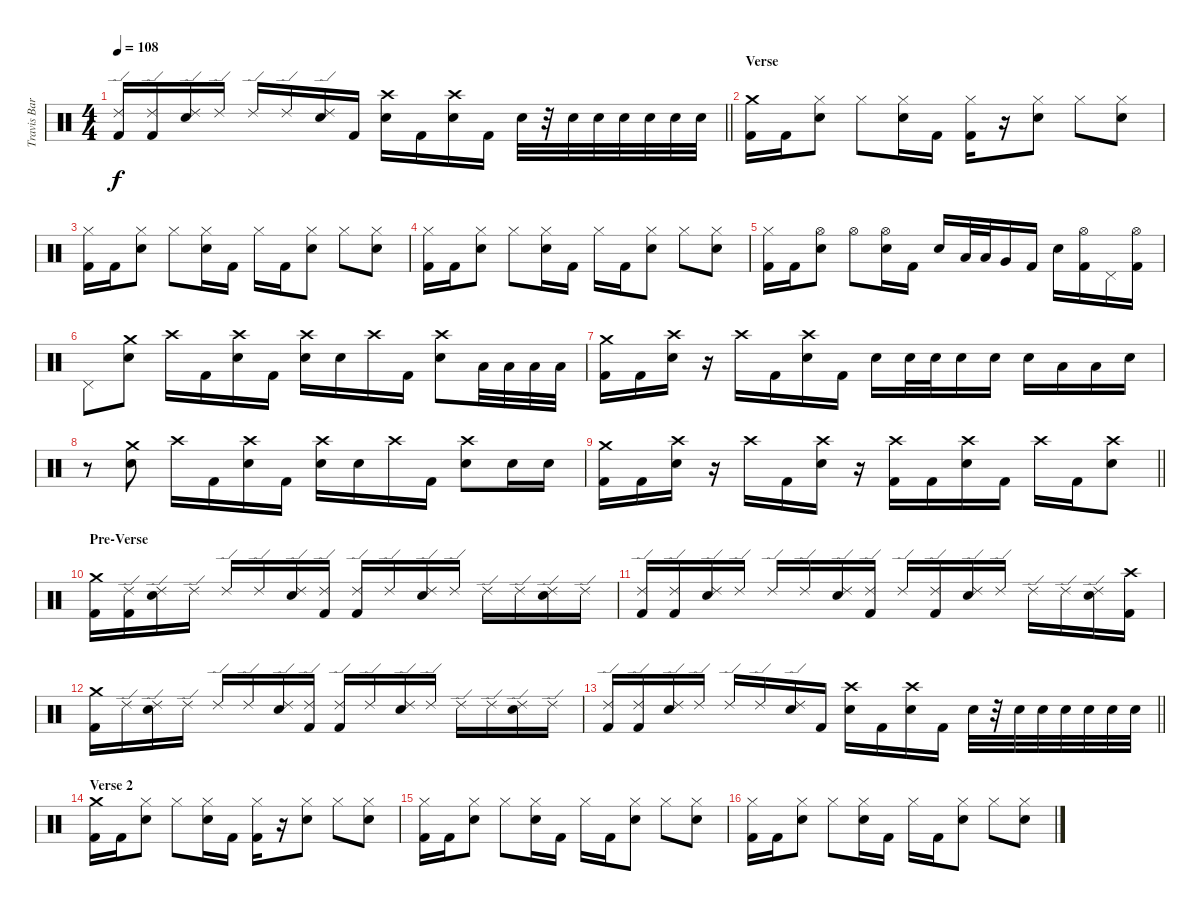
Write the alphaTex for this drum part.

\track ("Travis Barker" "Travis Bar") {instrument percussion}
\staff {score}
\articulation defaults
\ts (4 4)
\tempo 108
\clef neutral
\barLineRight lightlight
\ks c
("Ride (edge) 2" "Kick (hit) 2").16{dy f} ("Ride (edge) 2" "Kick (hit) 2").16 ("Ride (edge) 2" "Electric Snare (hit)").16 "Ride (edge) 2".16 "Ride (edge) 2".16 "Ride (edge) 2".16 ("Ride (edge) 2" "Electric Snare (hit)").16 "Kick (hit) 2".16 ("Crash high (hit)" "Electric Snare (hit)").16 "Kick (hit) 2".16 ("Crash high (hit)" "Electric Snare (hit)").16 "Kick (hit) 2".16 "Electric Snare (hit)".32 r.32 "Electric Snare (hit)".32 "Electric Snare (hit)".32 "Electric Snare (hit)".32 "Electric Snare (hit)".32 "Electric Snare (hit)".32 "Electric Snare (hit)".32 |
\section ("" "Verse")
("Crash medium (hit)" "Kick (hit) 2").16 "Kick (hit) 2".16 ("Hi-Hat (closed)" "Electric Snare (hit)").8 "Hi-Hat (closed)".8 ("Hi-Hat (closed)" "Electric Snare (hit)").16 "Kick (hit) 2".16 ("Hi-Hat (closed)" "Kick (hit) 2").16 r.16 ("Hi-Hat (closed)" "Electric Snare (hit)").8 "Hi-Hat (closed)".8 ("Hi-Hat (closed)" "Electric Snare (hit)").8 |
("Hi-Hat (closed)" "Kick (hit) 2").16 "Kick (hit) 2".16 ("Hi-Hat (closed)" "Electric Snare (hit)").8 "Hi-Hat (closed)".8 ("Hi-Hat (closed)" "Electric Snare (hit)").16 "Kick (hit) 2".16 "Hi-Hat (closed)".16 "Kick (hit) 2".16 ("Hi-Hat (closed)" "Electric Snare (hit)").8 "Hi-Hat (closed)".8 ("Hi-Hat (closed)" "Electric Snare (hit)").8 |
("Hi-Hat (closed)" "Kick (hit) 2").16 "Kick (hit) 2".16 ("Hi-Hat (closed)" "Electric Snare (hit)").8 "Hi-Hat (closed)".8 ("Hi-Hat (closed)" "Electric Snare (hit)").16 "Kick (hit) 2".16 "Hi-Hat (closed)".16 "Kick (hit) 2".16 ("Hi-Hat (closed)" "Electric Snare (hit)").8 "Hi-Hat (closed)".8 ("Hi-Hat (closed)" "Electric Snare (hit)").8 |
("Hi-Hat (closed)" "Kick (hit) 2").16 "Kick (hit) 2".16 ("Hi-Hat (open)" "Electric Snare (hit)").8 "Hi-Hat (open)".8 ("Hi-Hat (open)" "Electric Snare (hit)").16 "Kick (hit) 2".16 "Electric Snare (hit)".16 "Low Tom (hit)".32 "Low Tom (hit)".32 "Very Low Tom (hit)".16 "Kick (hit) 2".16 "Electric Snare (hit)".16 ("Hi-Hat (open)" "Kick (hit) 2").16 "Pedal Hi-Hat (hit)".16 ("Hi-Hat (open)" "Kick (hit) 2").16 |
"Pedal Hi-Hat (hit)".8 ("Crash medium (hit)" "Electric Snare (hit)").8 "Crash high (hit)".16 "Kick (hit) 2".16 ("Crash high (hit)" "Electric Snare (hit)").16 "Kick (hit) 2".16 ("Crash high (hit)" "Electric Snare (hit)").16 "Electric Snare (hit)".16 "Crash high (hit)".16 "Kick (hit) 2".16 ("Crash high (hit)" "Electric Snare (hit)").8 "Low Tom (hit)".32 "Low Tom (hit)".32 "Low Tom (hit)".32 "Low Tom (hit)".32 |
("Crash medium (hit)" "Kick (hit) 2").16 "Kick (hit) 2".16 ("Crash high (hit)" "Electric Snare (hit)").16 r.16 "Crash high (hit)".16 "Kick (hit) 2".16 ("Crash high (hit)" "Electric Snare (hit)").16 "Kick (hit) 2".16 "Electric Snare (hit)".16 "Electric Snare (hit)".32 "Electric Snare (hit)".32 "Electric Snare (hit)".16 "Electric Snare (hit)".16 "Electric Snare (hit)".16 "Low Tom (hit)".16 "Low Tom (hit)".16 "Electric Snare (hit)".16 |
r.8 ("Crash medium (hit)" "Electric Snare (hit)").8 "Crash high (hit)".16 "Kick (hit) 2".16 ("Crash high (hit)" "Electric Snare (hit)").16 "Kick (hit) 2".16 ("Crash high (hit)" "Electric Snare (hit)").16 "Electric Snare (hit)".16 "Crash high (hit)".16 "Kick (hit) 2".16 ("Crash high (hit)" "Electric Snare (hit)").8 "Electric Snare (hit)".16 "Electric Snare (hit)".16 |
\barLineRight lightlight
("Crash medium (hit)" "Kick (hit) 2").16 "Kick (hit) 2".16 ("Crash high (hit)" "Electric Snare (hit)").16 r.16 "Crash high (hit)".16 "Kick (hit) 2".16 ("Crash high (hit)" "Electric Snare (hit)").16 r.16 ("Crash high (hit)" "Kick (hit) 2").16 "Kick (hit) 2".16 ("Crash high (hit)" "Electric Snare (hit)").16 "Kick (hit) 2".16 "Crash high (hit)".16 "Kick (hit) 2".16 ("Crash high (hit)" "Electric Snare (hit)").8 |
\section ("" "Pre-Verse")
("Crash medium (hit)" "Kick (hit) 2").16 ("Ride (edge) 2" "Kick (hit) 2").16 ("Ride (edge) 2" "Electric Snare (hit)").16 "Ride (edge) 2".16 "Ride (edge) 2".16 "Ride (edge) 2".16 ("Ride (edge) 2" "Electric Snare (hit)").16 ("Ride (edge) 2" "Kick (hit) 2").16 ("Ride (edge) 2" "Kick (hit) 2").16 "Ride (edge) 2".16 ("Ride (edge) 2" "Electric Snare (hit)").16 "Ride (edge) 2".16 "Ride (edge) 2".16 "Ride (edge) 2".16 ("Ride (edge) 2" "Electric Snare (hit)").16 "Ride (edge) 2".16 |
("Ride (edge) 2" "Kick (hit) 2").16 ("Ride (edge) 2" "Kick (hit) 2").16 ("Ride (edge) 2" "Electric Snare (hit)").16 "Ride (edge) 2".16 "Ride (edge) 2".16 "Ride (edge) 2".16 ("Ride (edge) 2" "Electric Snare (hit)").16 ("Ride (edge) 2" "Kick (hit) 2").16 "Ride (edge) 2".16 ("Ride (edge) 2" "Kick (hit) 2").16 ("Ride (edge) 2" "Electric Snare (hit)").16 "Ride (edge) 2".16 "Ride (edge) 2".16 "Ride (edge) 2".16 ("Ride (edge) 2" "Electric Snare (hit)").16 ("Crash high (hit)" "Kick (hit) 2").16 |
("Crash medium (hit)" "Kick (hit) 2").16 "Ride (edge) 2".16 ("Ride (edge) 2" "Electric Snare (hit)").16 "Ride (edge) 2".16 "Ride (edge) 2".16 "Ride (edge) 2".16 ("Ride (edge) 2" "Electric Snare (hit)").16 ("Ride (edge) 2" "Kick (hit) 2").16 ("Ride (edge) 2" "Kick (hit) 2").16 "Ride (edge) 2".16 ("Ride (edge) 2" "Electric Snare (hit)").16 "Ride (edge) 2".16 "Ride (edge) 2".16 "Ride (edge) 2".16 ("Ride (edge) 2" "Electric Snare (hit)").16 "Ride (edge) 2".16 |
\barLineRight lightlight
("Ride (edge) 2" "Kick (hit) 2").16 ("Ride (edge) 2" "Kick (hit) 2").16 ("Ride (edge) 2" "Electric Snare (hit)").16 "Ride (edge) 2".16 "Ride (edge) 2".16 "Ride (edge) 2".16 ("Ride (edge) 2" "Electric Snare (hit)").16 "Kick (hit) 2".16 ("Crash high (hit)" "Electric Snare (hit)").16 "Kick (hit) 2".16 ("Crash high (hit)" "Electric Snare (hit)").16 "Kick (hit) 2".16 "Electric Snare (hit)".32 r.32 "Electric Snare (hit)".32 "Electric Snare (hit)".32 "Electric Snare (hit)".32 "Electric Snare (hit)".32 "Electric Snare (hit)".32 "Electric Snare (hit)".32 |
\section ("" "Verse 2")
("Crash medium (hit)" "Kick (hit) 2").16 "Kick (hit) 2".16 ("Hi-Hat (closed)" "Electric Snare (hit)").8 "Hi-Hat (closed)".8 ("Hi-Hat (closed)" "Electric Snare (hit)").16 "Kick (hit) 2".16 ("Hi-Hat (closed)" "Kick (hit) 2").16 r.16 ("Hi-Hat (closed)" "Electric Snare (hit)").8 "Hi-Hat (closed)".8 ("Hi-Hat (closed)" "Electric Snare (hit)").8 |
("Hi-Hat (closed)" "Kick (hit) 2").16 "Kick (hit) 2".16 ("Hi-Hat (closed)" "Electric Snare (hit)").8 "Hi-Hat (closed)".8 ("Hi-Hat (closed)" "Electric Snare (hit)").16 "Kick (hit) 2".16 "Hi-Hat (closed)".16 "Kick (hit) 2".16 ("Hi-Hat (closed)" "Electric Snare (hit)").8 "Hi-Hat (closed)".8 ("Hi-Hat (closed)" "Electric Snare (hit)").8 |
("Hi-Hat (closed)" "Kick (hit) 2").16 "Kick (hit) 2".16 ("Hi-Hat (closed)" "Electric Snare (hit)").8 "Hi-Hat (closed)".8 ("Hi-Hat (closed)" "Electric Snare (hit)").16 "Kick (hit) 2".16 "Hi-Hat (closed)".16 "Kick (hit) 2".16 ("Hi-Hat (closed)" "Electric Snare (hit)").8 "Hi-Hat (closed)".8 ("Hi-Hat (closed)" "Electric Snare (hit)").8
